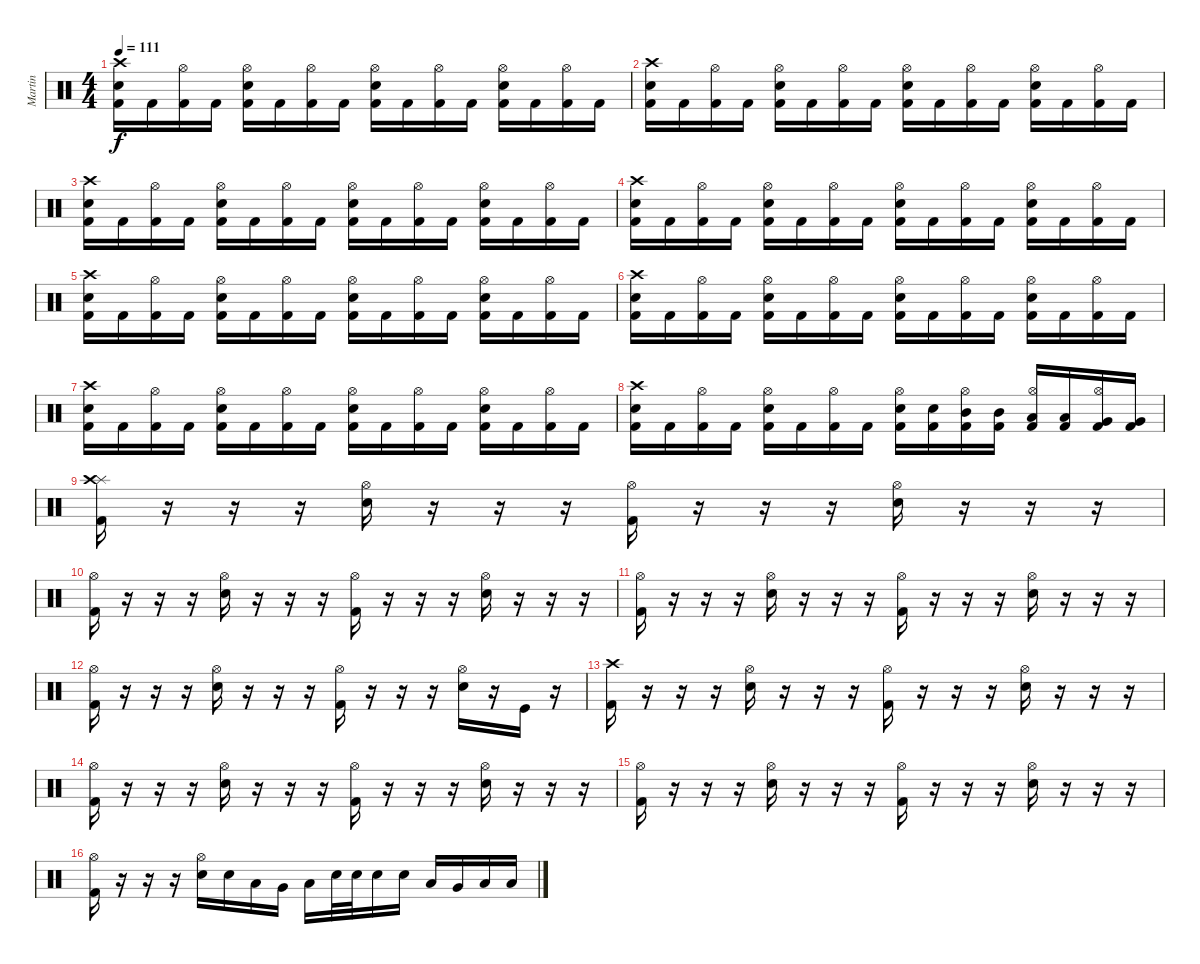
\track ("Martin" "Martin") {instrument percussion}
\staff {score}
\articulation defaults
\ts (4 4)
\tempo 111
\clef neutral
\ks c
("Kick (hit) 2" "Electric Snare (hit)" "Crash high (hit)").16{dy f} "Kick (hit) 2".16 ("Kick (hit) 2" "Hi-Hat (open)").16 "Kick (hit) 2".16 ("Kick (hit) 2" "Electric Snare (hit)" "Hi-Hat (open)").16 "Kick (hit) 2".16 ("Kick (hit) 2" "Hi-Hat (open)").16 "Kick (hit) 2".16 ("Kick (hit) 2" "Electric Snare (hit)" "Hi-Hat (open)").16 "Kick (hit) 2".16 ("Kick (hit) 2" "Hi-Hat (open)").16 "Kick (hit) 2".16 ("Kick (hit) 2" "Electric Snare (hit)" "Hi-Hat (open)").16 "Kick (hit) 2".16 ("Kick (hit) 2" "Hi-Hat (open)").16 "Kick (hit) 2".16 |
("Kick (hit) 2" "Electric Snare (hit)" "Crash high (hit)").16 "Kick (hit) 2".16 ("Kick (hit) 2" "Hi-Hat (open)").16 "Kick (hit) 2".16 ("Kick (hit) 2" "Electric Snare (hit)" "Hi-Hat (open)").16 "Kick (hit) 2".16 ("Kick (hit) 2" "Hi-Hat (open)").16 "Kick (hit) 2".16 ("Kick (hit) 2" "Electric Snare (hit)" "Hi-Hat (open)").16 "Kick (hit) 2".16 ("Kick (hit) 2" "Hi-Hat (open)").16 "Kick (hit) 2".16 ("Kick (hit) 2" "Electric Snare (hit)" "Hi-Hat (open)").16 "Kick (hit) 2".16 ("Kick (hit) 2" "Hi-Hat (open)").16 "Kick (hit) 2".16 |
("Kick (hit) 2" "Electric Snare (hit)" "Crash high (hit)").16 "Kick (hit) 2".16 ("Kick (hit) 2" "Hi-Hat (open)").16 "Kick (hit) 2".16 ("Kick (hit) 2" "Electric Snare (hit)" "Hi-Hat (open)").16 "Kick (hit) 2".16 ("Kick (hit) 2" "Hi-Hat (open)").16 "Kick (hit) 2".16 ("Kick (hit) 2" "Electric Snare (hit)" "Hi-Hat (open)").16 "Kick (hit) 2".16 ("Kick (hit) 2" "Hi-Hat (open)").16 "Kick (hit) 2".16 ("Kick (hit) 2" "Electric Snare (hit)" "Hi-Hat (open)").16 "Kick (hit) 2".16 ("Kick (hit) 2" "Hi-Hat (open)").16 "Kick (hit) 2".16 |
("Kick (hit) 2" "Electric Snare (hit)" "Crash high (hit)").16 "Kick (hit) 2".16 ("Kick (hit) 2" "Hi-Hat (open)").16 "Kick (hit) 2".16 ("Kick (hit) 2" "Electric Snare (hit)" "Hi-Hat (open)").16 "Kick (hit) 2".16 ("Kick (hit) 2" "Hi-Hat (open)").16 "Kick (hit) 2".16 ("Kick (hit) 2" "Electric Snare (hit)" "Hi-Hat (open)").16 "Kick (hit) 2".16 ("Kick (hit) 2" "Hi-Hat (open)").16 "Kick (hit) 2".16 ("Kick (hit) 2" "Electric Snare (hit)" "Hi-Hat (open)").16 "Kick (hit) 2".16 ("Kick (hit) 2" "Hi-Hat (open)").16 "Kick (hit) 2".16 |
("Kick (hit) 2" "Electric Snare (hit)" "Crash high (hit)").16 "Kick (hit) 2".16 ("Kick (hit) 2" "Hi-Hat (open)").16 "Kick (hit) 2".16 ("Kick (hit) 2" "Electric Snare (hit)" "Hi-Hat (open)").16 "Kick (hit) 2".16 ("Kick (hit) 2" "Hi-Hat (open)").16 "Kick (hit) 2".16 ("Kick (hit) 2" "Electric Snare (hit)" "Hi-Hat (open)").16 "Kick (hit) 2".16 ("Kick (hit) 2" "Hi-Hat (open)").16 "Kick (hit) 2".16 ("Kick (hit) 2" "Electric Snare (hit)" "Hi-Hat (open)").16 "Kick (hit) 2".16 ("Kick (hit) 2" "Hi-Hat (open)").16 "Kick (hit) 2".16 |
("Kick (hit) 2" "Electric Snare (hit)" "Crash high (hit)").16 "Kick (hit) 2".16 ("Kick (hit) 2" "Hi-Hat (open)").16 "Kick (hit) 2".16 ("Kick (hit) 2" "Electric Snare (hit)" "Hi-Hat (open)").16 "Kick (hit) 2".16 ("Kick (hit) 2" "Hi-Hat (open)").16 "Kick (hit) 2".16 ("Kick (hit) 2" "Electric Snare (hit)" "Hi-Hat (open)").16 "Kick (hit) 2".16 ("Kick (hit) 2" "Hi-Hat (open)").16 "Kick (hit) 2".16 ("Kick (hit) 2" "Electric Snare (hit)" "Hi-Hat (open)").16 "Kick (hit) 2".16 ("Kick (hit) 2" "Hi-Hat (open)").16 "Kick (hit) 2".16 |
("Kick (hit) 2" "Electric Snare (hit)" "Crash high (hit)").16 "Kick (hit) 2".16 ("Kick (hit) 2" "Hi-Hat (open)").16 "Kick (hit) 2".16 ("Kick (hit) 2" "Electric Snare (hit)" "Hi-Hat (open)").16 "Kick (hit) 2".16 ("Kick (hit) 2" "Hi-Hat (open)").16 "Kick (hit) 2".16 ("Kick (hit) 2" "Electric Snare (hit)" "Hi-Hat (open)").16 "Kick (hit) 2".16 ("Kick (hit) 2" "Hi-Hat (open)").16 "Kick (hit) 2".16 ("Kick (hit) 2" "Electric Snare (hit)" "Hi-Hat (open)").16 "Kick (hit) 2".16 ("Kick (hit) 2" "Hi-Hat (open)").16 "Kick (hit) 2".16 |
("Kick (hit) 2" "Electric Snare (hit)" "Crash high (hit)").16 "Kick (hit) 2".16 ("Kick (hit) 2" "Hi-Hat (open)").16 "Kick (hit) 2".16 ("Kick (hit) 2" "Electric Snare (hit)" "Hi-Hat (open)").16 "Kick (hit) 2".16 ("Kick (hit) 2" "Hi-Hat (open)").16 "Kick (hit) 2".16 ("Kick (hit) 2" "Electric Snare (hit)" "Hi-Hat (open)").16 ("Kick (hit) 2" "Electric Snare (hit)").16 ("Kick (hit) 2" "Mid Tom (hit)" "Hi-Hat (open)").16 ("Kick (hit) 2" "Mid Tom (hit)").16 ("Kick (hit) 2" "Low Tom (hit)" "Hi-Hat (open)").16 ("Kick (hit) 2" "Low Tom (hit)").16 ("Kick (hit) 2" "Very Low Tom (hit)" "Hi-Hat (open)").16 ("Kick (hit) 2" "Very Low Tom (hit)").16 |
("Kick (hit) 2" "Splash (hit)" "Crash high (hit)").16 r.16 r.16 r.16 ("Electric Snare (hit)" "Hi-Hat (open)").16 r.16 r.16 r.16 ("Kick (hit) 2" "Hi-Hat (open)").16 r.16 r.16 r.16 ("Electric Snare (hit)" "Hi-Hat (open)").16 r.16 r.16 r.16 |
("Kick (hit) 2" "Hi-Hat (open)").16 r.16 r.16 r.16 ("Electric Snare (hit)" "Hi-Hat (open)").16 r.16 r.16 r.16 ("Kick (hit) 2" "Hi-Hat (open)").16 r.16 r.16 r.16 ("Electric Snare (hit)" "Hi-Hat (open)").16 r.16 r.16 r.16 |
("Kick (hit) 2" "Hi-Hat (open)").16 r.16 r.16 r.16 ("Electric Snare (hit)" "Hi-Hat (open)").16 r.16 r.16 r.16 ("Kick (hit) 2" "Hi-Hat (open)").16 r.16 r.16 r.16 ("Electric Snare (hit)" "Hi-Hat (open)").16 r.16 r.16 r.16 |
("Kick (hit) 2" "Hi-Hat (open)").16 r.16 r.16 r.16 ("Electric Snare (hit)" "Hi-Hat (open)").16 r.16 r.16 r.16 ("Kick (hit) 2" "Hi-Hat (open)").16 r.16 r.16 r.16 ("Electric Snare (hit)" "Hi-Hat (open)").16 r.16 "Kick (hit)".16 r.16 |
("Kick (hit) 2" "Crash high (hit)").16 r.16 r.16 r.16 ("Electric Snare (hit)" "Hi-Hat (open)").16 r.16 r.16 r.16 ("Kick (hit) 2" "Hi-Hat (open)").16 r.16 r.16 r.16 ("Electric Snare (hit)" "Hi-Hat (open)").16 r.16 r.16 r.16 |
("Kick (hit) 2" "Hi-Hat (open)").16 r.16 r.16 r.16 ("Electric Snare (hit)" "Hi-Hat (open)").16 r.16 r.16 r.16 ("Kick (hit) 2" "Hi-Hat (open)").16 r.16 r.16 r.16 ("Electric Snare (hit)" "Hi-Hat (open)").16 r.16 r.16 r.16 |
("Kick (hit) 2" "Hi-Hat (open)").16 r.16 r.16 r.16 ("Electric Snare (hit)" "Hi-Hat (open)").16 r.16 r.16 r.16 ("Kick (hit) 2" "Hi-Hat (open)").16 r.16 r.16 r.16 ("Electric Snare (hit)" "Hi-Hat (open)").16 r.16 r.16 r.16 |
("Kick (hit) 2" "Hi-Hat (open)").16 r.16 r.16 r.16 ("Electric Snare (hit)" "Hi-Hat (open)").16 "Electric Snare (hit)".16 "Low Tom (hit)".16 "Very Low Tom (hit)".16 "Low Floor Tom (hit)".16 "Electric Snare (hit)".32 "Electric Snare (hit)".32 "Electric Snare (hit)".16 "Electric Snare (hit)".16 "Low Tom (hit)".16 "Very Low Tom (hit)".16 "Low Floor Tom (hit)".16 "Low Floor Tom (hit)".16
